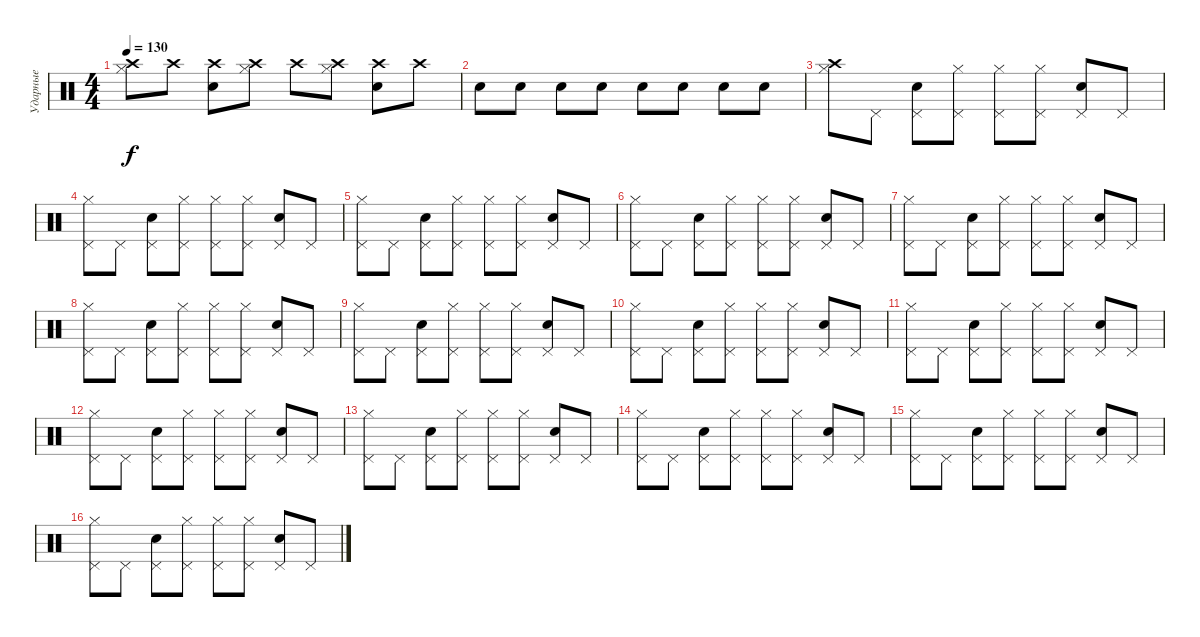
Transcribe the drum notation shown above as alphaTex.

\track ("Ударные" "Ударные") {instrument percussion}
\staff {score}
\articulation defaults
\ts (4 4)
\tempo 130
\clef neutral
\ks c
("Hi-Hat (closed)" "Crash high (hit)").8{dy f} "Crash high (hit)".8 ("Snare (hit) 2" "Crash high (hit)").8 ("Hi-Hat (closed)" "Crash high (hit)").8 "Crash high (hit)".8 ("Hi-Hat (closed)" "Crash high (hit)").8 ("Snare (hit) 2" "Crash high (hit)").8 "Crash high (hit)".8 |
"Snare (hit) 2".8 "Snare (hit) 2".8 "Snare (hit) 2".8 "Snare (hit) 2".8 "Snare (hit) 2".8 "Snare (hit) 2".8 "Snare (hit) 2".8 "Snare (hit) 2".8 |
("Hi-Hat (closed)" "Crash high (hit)").8 "Pedal Hi-Hat (hit)".8 ("Pedal Hi-Hat (hit)" "Snare (hit) 2").8 ("Pedal Hi-Hat (hit)" "Hi-Hat (closed)").8 ("Pedal Hi-Hat (hit)" "Hi-Hat (closed)").8 ("Pedal Hi-Hat (hit)" "Hi-Hat (closed)").8 ("Pedal Hi-Hat (hit)" "Snare (hit) 2").8 "Pedal Hi-Hat (hit)".8 |
("Pedal Hi-Hat (hit)" "Hi-Hat (closed)").8 "Pedal Hi-Hat (hit)".8 ("Pedal Hi-Hat (hit)" "Snare (hit) 2").8 ("Pedal Hi-Hat (hit)" "Hi-Hat (closed)").8 ("Pedal Hi-Hat (hit)" "Hi-Hat (closed)").8 ("Pedal Hi-Hat (hit)" "Hi-Hat (closed)").8 ("Pedal Hi-Hat (hit)" "Snare (hit) 2").8 "Pedal Hi-Hat (hit)".8 |
("Pedal Hi-Hat (hit)" "Hi-Hat (closed)").8 "Pedal Hi-Hat (hit)".8 ("Pedal Hi-Hat (hit)" "Snare (hit) 2").8 ("Pedal Hi-Hat (hit)" "Hi-Hat (closed)").8 ("Pedal Hi-Hat (hit)" "Hi-Hat (closed)").8 ("Pedal Hi-Hat (hit)" "Hi-Hat (closed)").8 ("Pedal Hi-Hat (hit)" "Snare (hit) 2").8 "Pedal Hi-Hat (hit)".8 |
("Pedal Hi-Hat (hit)" "Hi-Hat (closed)").8 "Pedal Hi-Hat (hit)".8 ("Pedal Hi-Hat (hit)" "Snare (hit) 2").8 ("Pedal Hi-Hat (hit)" "Hi-Hat (closed)").8 ("Pedal Hi-Hat (hit)" "Hi-Hat (closed)").8 ("Pedal Hi-Hat (hit)" "Hi-Hat (closed)").8 ("Pedal Hi-Hat (hit)" "Snare (hit) 2").8 "Pedal Hi-Hat (hit)".8 |
("Pedal Hi-Hat (hit)" "Hi-Hat (closed)").8 "Pedal Hi-Hat (hit)".8 ("Pedal Hi-Hat (hit)" "Snare (hit) 2").8 ("Pedal Hi-Hat (hit)" "Hi-Hat (closed)").8 ("Pedal Hi-Hat (hit)" "Hi-Hat (closed)").8 ("Pedal Hi-Hat (hit)" "Hi-Hat (closed)").8 ("Pedal Hi-Hat (hit)" "Snare (hit) 2").8 "Pedal Hi-Hat (hit)".8 |
("Pedal Hi-Hat (hit)" "Hi-Hat (closed)").8 "Pedal Hi-Hat (hit)".8 ("Pedal Hi-Hat (hit)" "Snare (hit) 2").8 ("Pedal Hi-Hat (hit)" "Hi-Hat (closed)").8 ("Pedal Hi-Hat (hit)" "Hi-Hat (closed)").8 ("Pedal Hi-Hat (hit)" "Hi-Hat (closed)").8 ("Pedal Hi-Hat (hit)" "Snare (hit) 2").8 "Pedal Hi-Hat (hit)".8 |
("Pedal Hi-Hat (hit)" "Hi-Hat (closed)").8 "Pedal Hi-Hat (hit)".8 ("Pedal Hi-Hat (hit)" "Snare (hit) 2").8 ("Pedal Hi-Hat (hit)" "Hi-Hat (closed)").8 ("Pedal Hi-Hat (hit)" "Hi-Hat (closed)").8 ("Pedal Hi-Hat (hit)" "Hi-Hat (closed)").8 ("Pedal Hi-Hat (hit)" "Snare (hit) 2").8 "Pedal Hi-Hat (hit)".8 |
("Pedal Hi-Hat (hit)" "Hi-Hat (closed)").8 "Pedal Hi-Hat (hit)".8 ("Pedal Hi-Hat (hit)" "Snare (hit) 2").8 ("Pedal Hi-Hat (hit)" "Hi-Hat (closed)").8 ("Pedal Hi-Hat (hit)" "Hi-Hat (closed)").8 ("Pedal Hi-Hat (hit)" "Hi-Hat (closed)").8 ("Pedal Hi-Hat (hit)" "Snare (hit) 2").8 "Pedal Hi-Hat (hit)".8 |
("Pedal Hi-Hat (hit)" "Hi-Hat (closed)").8 "Pedal Hi-Hat (hit)".8 ("Pedal Hi-Hat (hit)" "Snare (hit) 2").8 ("Pedal Hi-Hat (hit)" "Hi-Hat (closed)").8 ("Pedal Hi-Hat (hit)" "Hi-Hat (closed)").8 ("Pedal Hi-Hat (hit)" "Hi-Hat (closed)").8 ("Pedal Hi-Hat (hit)" "Snare (hit) 2").8 "Pedal Hi-Hat (hit)".8 |
("Pedal Hi-Hat (hit)" "Hi-Hat (closed)").8 "Pedal Hi-Hat (hit)".8 ("Pedal Hi-Hat (hit)" "Snare (hit) 2").8 ("Pedal Hi-Hat (hit)" "Hi-Hat (closed)").8 ("Pedal Hi-Hat (hit)" "Hi-Hat (closed)").8 ("Pedal Hi-Hat (hit)" "Hi-Hat (closed)").8 ("Pedal Hi-Hat (hit)" "Snare (hit) 2").8 "Pedal Hi-Hat (hit)".8 |
("Pedal Hi-Hat (hit)" "Hi-Hat (closed)").8 "Pedal Hi-Hat (hit)".8 ("Pedal Hi-Hat (hit)" "Snare (hit) 2").8 ("Pedal Hi-Hat (hit)" "Hi-Hat (closed)").8 ("Pedal Hi-Hat (hit)" "Hi-Hat (closed)").8 ("Pedal Hi-Hat (hit)" "Hi-Hat (closed)").8 ("Pedal Hi-Hat (hit)" "Snare (hit) 2").8 "Pedal Hi-Hat (hit)".8 |
("Pedal Hi-Hat (hit)" "Hi-Hat (closed)").8 "Pedal Hi-Hat (hit)".8 ("Pedal Hi-Hat (hit)" "Snare (hit) 2").8 ("Pedal Hi-Hat (hit)" "Hi-Hat (closed)").8 ("Pedal Hi-Hat (hit)" "Hi-Hat (closed)").8 ("Pedal Hi-Hat (hit)" "Hi-Hat (closed)").8 ("Pedal Hi-Hat (hit)" "Snare (hit) 2").8 "Pedal Hi-Hat (hit)".8 |
("Pedal Hi-Hat (hit)" "Hi-Hat (closed)").8 "Pedal Hi-Hat (hit)".8 ("Pedal Hi-Hat (hit)" "Snare (hit) 2").8 ("Pedal Hi-Hat (hit)" "Hi-Hat (closed)").8 ("Pedal Hi-Hat (hit)" "Hi-Hat (closed)").8 ("Pedal Hi-Hat (hit)" "Hi-Hat (closed)").8 ("Pedal Hi-Hat (hit)" "Snare (hit) 2").8 "Pedal Hi-Hat (hit)".8 |
("Pedal Hi-Hat (hit)" "Hi-Hat (closed)").8 "Pedal Hi-Hat (hit)".8 ("Pedal Hi-Hat (hit)" "Snare (hit) 2").8 ("Pedal Hi-Hat (hit)" "Hi-Hat (closed)").8 ("Pedal Hi-Hat (hit)" "Hi-Hat (closed)").8 ("Pedal Hi-Hat (hit)" "Hi-Hat (closed)").8 ("Pedal Hi-Hat (hit)" "Snare (hit) 2").8 "Pedal Hi-Hat (hit)".8
